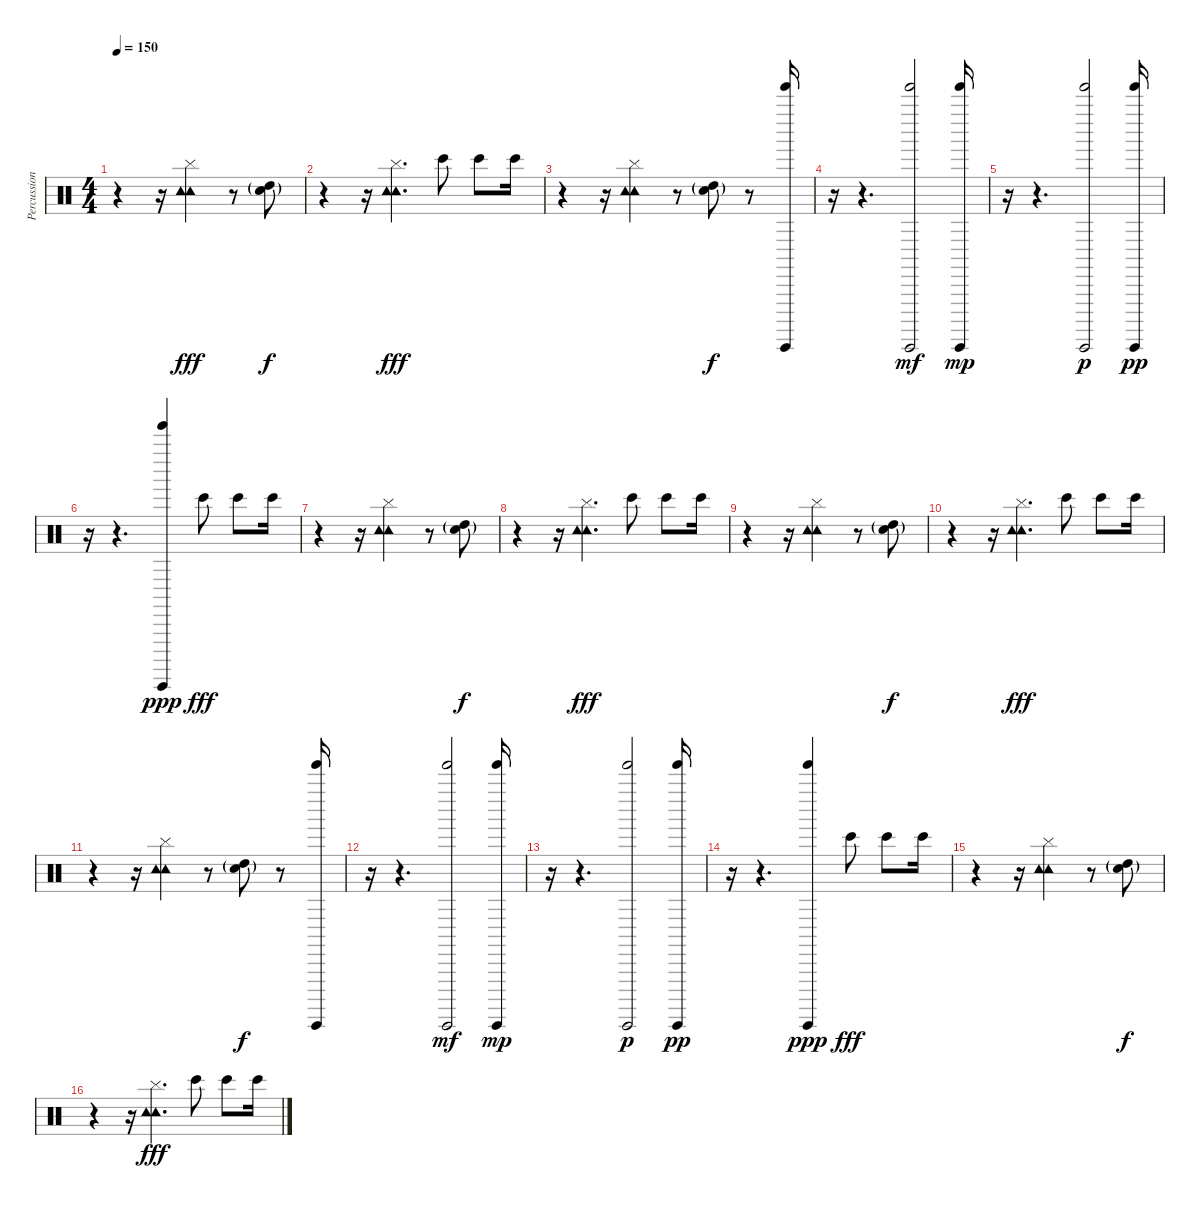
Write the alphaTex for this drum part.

\track ("Percussion" "Percussion") {instrument percussion}
\staff {score}
\articulation defaults
\ts (4 4)
\tempo 150
\clef neutral
\ks c
r.4{dy fff balance 8} r.16 ("Tambourine (hit)" "Cymbal (hit)" "Tambourine (hit)").4{bd 240} r.8 ("Snare (hit) 2"{g} "High Tom (hit)"{g}).8{dy f} |
r.4{balance 8} r.16 ("Tambourine (hit)" "Cymbal (hit)" "Tambourine (hit)").4{d bd 240 dy fff} "Bongo High (hit)".8{balance 0} "Bongo High (hit)".8 "Bongo High (hit)".16 |
r.4{balance 8} r.16 ("Tambourine (hit)" "Cymbal (hit)" "Tambourine (hit)").4{bd 240} r.8 ("Snare (hit) 2"{g} "High Tom (hit)"{g}).8{dy f} r.8 ("Guiro (hit)" "Tinkle Bell (hit)").16 |
r.16 r.4{d} ("Guiro (hit)" "Tinkle Bell (hit)").2{dy mf} ("Guiro (hit)" "Tinkle Bell (hit)").16{dy mp} |
r.16 r.4{d} ("Guiro (hit)" "Tinkle Bell (hit)").2{dy p} ("Guiro (hit)" "Tinkle Bell (hit)").16{dy pp} |
r.16 r.4{d} ("Guiro (hit)" "Tinkle Bell (hit)").4{dy ppp} "Bongo High (hit)".8{dy fff balance 0} "Bongo High (hit)".8 "Bongo High (hit)".16 |
r.4{balance 8} r.16 ("Tambourine (hit)" "Cymbal (hit)" "Tambourine (hit)").4{bd 240} r.8 ("Snare (hit) 2"{g} "High Tom (hit)"{g}).8{dy f} |
r.4{balance 8} r.16 ("Tambourine (hit)" "Cymbal (hit)" "Tambourine (hit)").4{d bd 240 dy fff} "Bongo High (hit)".8{balance 0} "Bongo High (hit)".8 "Bongo High (hit)".16 |
r.4{balance 8} r.16 ("Tambourine (hit)" "Cymbal (hit)" "Tambourine (hit)").4{bd 240} r.8 ("Snare (hit) 2"{g} "High Tom (hit)"{g}).8{dy f} |
r.4{balance 8} r.16 ("Tambourine (hit)" "Cymbal (hit)" "Tambourine (hit)").4{d bd 240 dy fff} "Bongo High (hit)".8{balance 0} "Bongo High (hit)".8 "Bongo High (hit)".16 |
r.4{balance 8} r.16 ("Tambourine (hit)" "Cymbal (hit)" "Tambourine (hit)").4{bd 240} r.8 ("Snare (hit) 2"{g} "High Tom (hit)"{g}).8{dy f} r.8 ("Guiro (hit)" "Tinkle Bell (hit)").16 |
r.16 r.4{d} ("Guiro (hit)" "Tinkle Bell (hit)").2{dy mf} ("Guiro (hit)" "Tinkle Bell (hit)").16{dy mp} |
r.16 r.4{d} ("Guiro (hit)" "Tinkle Bell (hit)").2{dy p} ("Guiro (hit)" "Tinkle Bell (hit)").16{dy pp} |
r.16 r.4{d} ("Guiro (hit)" "Tinkle Bell (hit)").4{dy ppp} "Bongo High (hit)".8{dy fff balance 0} "Bongo High (hit)".8 "Bongo High (hit)".16 |
r.4{balance 8} r.16 ("Tambourine (hit)" "Cymbal (hit)" "Tambourine (hit)").4{bd 240} r.8 ("Snare (hit) 2"{g} "High Tom (hit)"{g}).8{dy f} |
r.4{balance 8} r.16 ("Tambourine (hit)" "Cymbal (hit)" "Tambourine (hit)").4{d bd 240 dy fff} "Bongo High (hit)".8{balance 0} "Bongo High (hit)".8 "Bongo High (hit)".16
